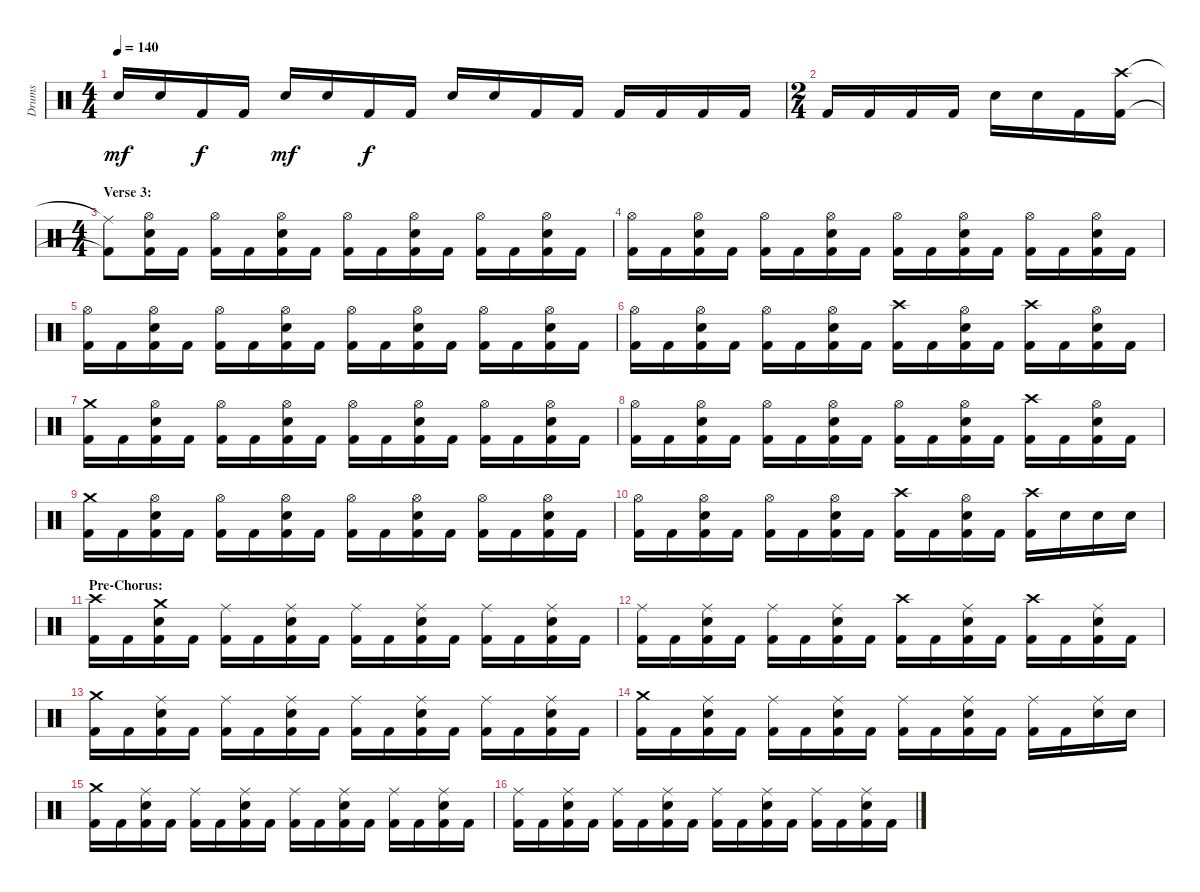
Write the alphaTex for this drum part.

\track ("Drums" "Drums") {instrument percussion}
\staff {score}
\articulation defaults
\ts (4 4)
\tempo 140
\clef neutral
\ks c "Snare (hit) 2".16{dy mf} "Snare (hit) 2".16 "Kick (hit) 2".16{dy f} "Kick (hit) 2".16 "Snare (hit) 2".16{dy mf} "Snare (hit) 2".16 "Kick (hit) 2".16{dy f} "Kick (hit) 2".16 "Snare (hit) 2".16 "Snare (hit) 2".16 "Kick (hit) 2".16 "Kick (hit) 2".16 "Kick (hit) 2".16 "Kick (hit) 2".16 "Kick (hit) 2".16 "Kick (hit) 2".16
|
\ts (2 4)
"Kick (hit) 2".16 "Kick (hit) 2".16 "Kick (hit) 2".16 "Kick (hit) 2".16 "Snare (hit) 2".16 "Snare (hit) 2".16 "Kick (hit) 2".16 ("Crash high (hit)" "Kick (hit) 2").16 |
\ts (4 4)
\section ("" "Verse 3:")
("Ride (middle)"{t} "Kick (hit) 2"{t}).8 ("Hi-Hat (open)" "Snare (hit) 2" "Kick (hit) 2").16 "Kick (hit) 2".16 ("Hi-Hat (open)" "Kick (hit) 2").16 "Kick (hit) 2".16 ("Hi-Hat (open)" "Snare (hit) 2" "Kick (hit) 2").16 "Kick (hit) 2".16 ("Hi-Hat (open)" "Kick (hit) 2").16 "Kick (hit) 2".16 ("Hi-Hat (open)" "Snare (hit) 2" "Kick (hit) 2").16 "Kick (hit) 2".16 ("Hi-Hat (open)" "Kick (hit) 2").16 "Kick (hit) 2".16 ("Hi-Hat (open)" "Snare (hit) 2" "Kick (hit) 2").16 "Kick (hit) 2".16 |
("Hi-Hat (open)" "Kick (hit) 2").16 "Kick (hit) 2".16 ("Hi-Hat (open)" "Snare (hit) 2" "Kick (hit) 2").16 "Kick (hit) 2".16 ("Hi-Hat (open)" "Kick (hit) 2").16 "Kick (hit) 2".16 ("Hi-Hat (open)" "Snare (hit) 2" "Kick (hit) 2").16 "Kick (hit) 2".16 ("Hi-Hat (open)" "Kick (hit) 2").16 "Kick (hit) 2".16 ("Hi-Hat (open)" "Snare (hit) 2" "Kick (hit) 2").16 "Kick (hit) 2".16 ("Hi-Hat (open)" "Kick (hit) 2").16 "Kick (hit) 2".16 ("Hi-Hat (open)" "Snare (hit) 2" "Kick (hit) 2").16 "Kick (hit) 2".16 |
("Hi-Hat (open)" "Kick (hit) 2").16 "Kick (hit) 2".16 ("Hi-Hat (open)" "Snare (hit) 2" "Kick (hit) 2").16 "Kick (hit) 2".16 ("Hi-Hat (open)" "Kick (hit) 2").16 "Kick (hit) 2".16 ("Hi-Hat (open)" "Snare (hit) 2" "Kick (hit) 2").16 "Kick (hit) 2".16 ("Hi-Hat (open)" "Kick (hit) 2").16 "Kick (hit) 2".16 ("Hi-Hat (open)" "Snare (hit) 2" "Kick (hit) 2").16 "Kick (hit) 2".16 ("Hi-Hat (open)" "Kick (hit) 2").16 "Kick (hit) 2".16 ("Hi-Hat (open)" "Snare (hit) 2" "Kick (hit) 2").16 "Kick (hit) 2".16 |
("Hi-Hat (open)" "Kick (hit) 2").16 "Kick (hit) 2".16 ("Hi-Hat (open)" "Snare (hit) 2" "Kick (hit) 2").16 "Kick (hit) 2".16 ("Hi-Hat (open)" "Kick (hit) 2").16 "Kick (hit) 2".16 ("Hi-Hat (open)" "Snare (hit) 2" "Kick (hit) 2").16 "Kick (hit) 2".16 ("Crash high (hit)" "Kick (hit) 2").16 "Kick (hit) 2".16 ("Hi-Hat (open)" "Snare (hit) 2" "Kick (hit) 2").16 "Kick (hit) 2".16 ("Crash high (hit)" "Kick (hit) 2").16 "Kick (hit) 2".16 ("Hi-Hat (open)" "Snare (hit) 2" "Kick (hit) 2").16 "Kick (hit) 2".16 |
("Crash medium (hit)" "Kick (hit) 2").16 "Kick (hit) 2".16 ("Hi-Hat (open)" "Snare (hit) 2" "Kick (hit) 2").16 "Kick (hit) 2".16 ("Hi-Hat (open)" "Kick (hit) 2").16 "Kick (hit) 2".16 ("Hi-Hat (open)" "Snare (hit) 2" "Kick (hit) 2").16 "Kick (hit) 2".16 ("Hi-Hat (open)" "Kick (hit) 2").16 "Kick (hit) 2".16 ("Hi-Hat (open)" "Snare (hit) 2" "Kick (hit) 2").16 "Kick (hit) 2".16 ("Hi-Hat (open)" "Kick (hit) 2").16 "Kick (hit) 2".16 ("Hi-Hat (open)" "Snare (hit) 2" "Kick (hit) 2").16 "Kick (hit) 2".16 |
("Hi-Hat (open)" "Kick (hit) 2").16 "Kick (hit) 2".16 ("Hi-Hat (open)" "Snare (hit) 2" "Kick (hit) 2").16 "Kick (hit) 2".16 ("Hi-Hat (open)" "Kick (hit) 2").16 "Kick (hit) 2".16 ("Hi-Hat (open)" "Snare (hit) 2" "Kick (hit) 2").16 "Kick (hit) 2".16 ("Hi-Hat (open)" "Kick (hit) 2").16 "Kick (hit) 2".16 ("Hi-Hat (open)" "Snare (hit) 2" "Kick (hit) 2").16 "Kick (hit) 2".16 ("Crash high (hit)" "Kick (hit) 2").16 "Kick (hit) 2".16 ("Hi-Hat (open)" "Snare (hit) 2" "Kick (hit) 2").16 "Kick (hit) 2".16 |
("Crash medium (hit)" "Kick (hit) 2").16 "Kick (hit) 2".16 ("Hi-Hat (open)" "Snare (hit) 2" "Kick (hit) 2").16 "Kick (hit) 2".16 ("Hi-Hat (open)" "Kick (hit) 2").16 "Kick (hit) 2".16 ("Hi-Hat (open)" "Snare (hit) 2" "Kick (hit) 2").16 "Kick (hit) 2".16 ("Hi-Hat (open)" "Kick (hit) 2").16 "Kick (hit) 2".16 ("Hi-Hat (open)" "Snare (hit) 2" "Kick (hit) 2").16 "Kick (hit) 2".16 ("Hi-Hat (open)" "Kick (hit) 2").16 "Kick (hit) 2".16 ("Hi-Hat (open)" "Snare (hit) 2" "Kick (hit) 2").16 "Kick (hit) 2".16 |
("Hi-Hat (open)" "Kick (hit) 2").16 "Kick (hit) 2".16 ("Hi-Hat (open)" "Snare (hit) 2" "Kick (hit) 2").16 "Kick (hit) 2".16 ("Hi-Hat (open)" "Kick (hit) 2").16 "Kick (hit) 2".16 ("Hi-Hat (open)" "Snare (hit) 2" "Kick (hit) 2").16 "Kick (hit) 2".16 ("Crash high (hit)" "Kick (hit) 2").16 "Kick (hit) 2".16 ("Hi-Hat (open)" "Snare (hit) 2" "Kick (hit) 2").16 "Kick (hit) 2".16 ("Crash high (hit)" "Kick (hit) 2").16 "Snare (hit) 2".16 "Snare (hit) 2".16 "Snare (hit) 2".16 |
\section ("" "Pre-Chorus:")
("Crash high (hit)" "Kick (hit) 2").16 "Kick (hit) 2".16 ("Crash medium (hit)" "Snare (hit) 2" "Kick (hit) 2").16 "Kick (hit) 2".16 ("Ride (middle)" "Kick (hit) 2").16 "Kick (hit) 2".16 ("Ride (middle)" "Snare (hit) 2" "Kick (hit) 2").16 "Kick (hit) 2".16 ("Ride (middle)" "Kick (hit) 2").16 "Kick (hit) 2".16 ("Ride (middle)" "Snare (hit) 2" "Kick (hit) 2").16 "Kick (hit) 2".16 ("Ride (middle)" "Kick (hit) 2").16 "Kick (hit) 2".16 ("Ride (middle)" "Snare (hit) 2" "Kick (hit) 2").16 "Kick (hit) 2".16 |
("Ride (middle)" "Kick (hit) 2").16 "Kick (hit) 2".16 ("Ride (middle)" "Snare (hit) 2" "Kick (hit) 2").16 "Kick (hit) 2".16 ("Ride (middle)" "Kick (hit) 2").16 "Kick (hit) 2".16 ("Ride (middle)" "Snare (hit) 2" "Kick (hit) 2").16 "Kick (hit) 2".16 ("Crash high (hit)" "Kick (hit) 2").16 "Kick (hit) 2".16 ("Ride (middle)" "Snare (hit) 2" "Kick (hit) 2").16 "Kick (hit) 2".16 ("Crash high (hit)" "Kick (hit) 2").16 "Kick (hit) 2".16 ("Ride (middle)" "Snare (hit) 2" "Kick (hit) 2").16 "Kick (hit) 2".16 |
("Crash medium (hit)" "Kick (hit) 2").16 "Kick (hit) 2".16 ("Ride (middle)" "Snare (hit) 2" "Kick (hit) 2").16 "Kick (hit) 2".16 ("Ride (middle)" "Kick (hit) 2").16 "Kick (hit) 2".16 ("Ride (middle)" "Snare (hit) 2" "Kick (hit) 2").16 "Kick (hit) 2".16 ("Ride (middle)" "Kick (hit) 2").16 "Kick (hit) 2".16 ("Ride (middle)" "Snare (hit) 2" "Kick (hit) 2").16 "Kick (hit) 2".16 ("Ride (middle)" "Kick (hit) 2").16 "Kick (hit) 2".16 ("Ride (middle)" "Snare (hit) 2" "Kick (hit) 2").16 "Kick (hit) 2".16 |
("Crash medium (hit)" "Kick (hit) 2").16 "Kick (hit) 2".16 ("Ride (middle)" "Snare (hit) 2" "Kick (hit) 2").16 "Kick (hit) 2".16 ("Ride (middle)" "Kick (hit) 2").16 "Kick (hit) 2".16 ("Ride (middle)" "Snare (hit) 2" "Kick (hit) 2").16 "Kick (hit) 2".16 ("Ride (middle)" "Kick (hit) 2").16 "Kick (hit) 2".16 ("Ride (middle)" "Snare (hit) 2" "Kick (hit) 2").16 "Kick (hit) 2".16 ("Ride (middle)" "Kick (hit) 2").16 "Kick (hit) 2".16 ("Ride (middle)" "Snare (hit) 2").16 "Snare (hit) 2".16 |
("Crash medium (hit)" "Kick (hit) 2").16 "Kick (hit) 2".16 ("Ride (middle)" "Snare (hit) 2" "Kick (hit) 2").16 "Kick (hit) 2".16 ("Ride (middle)" "Kick (hit) 2").16 "Kick (hit) 2".16 ("Ride (middle)" "Snare (hit) 2" "Kick (hit) 2").16 "Kick (hit) 2".16 ("Ride (middle)" "Kick (hit) 2").16 "Kick (hit) 2".16 ("Ride (middle)" "Snare (hit) 2" "Kick (hit) 2").16 "Kick (hit) 2".16 ("Ride (middle)" "Kick (hit) 2").16 "Kick (hit) 2".16 ("Ride (middle)" "Snare (hit) 2" "Kick (hit) 2").16 "Kick (hit) 2".16 |
("Ride (middle)" "Kick (hit) 2").16 "Kick (hit) 2".16 ("Ride (middle)" "Snare (hit) 2" "Kick (hit) 2").16 "Kick (hit) 2".16 ("Ride (middle)" "Kick (hit) 2").16 "Kick (hit) 2".16 ("Ride (middle)" "Snare (hit) 2" "Kick (hit) 2").16 "Kick (hit) 2".16 ("Ride (middle)" "Kick (hit) 2").16 "Kick (hit) 2".16 ("Ride (middle)" "Snare (hit) 2" "Kick (hit) 2").16 "Kick (hit) 2".16 ("Ride (middle)" "Kick (hit) 2").16 "Kick (hit) 2".16 ("Ride (middle)" "Snare (hit) 2" "Kick (hit) 2").16 "Kick (hit) 2".16
